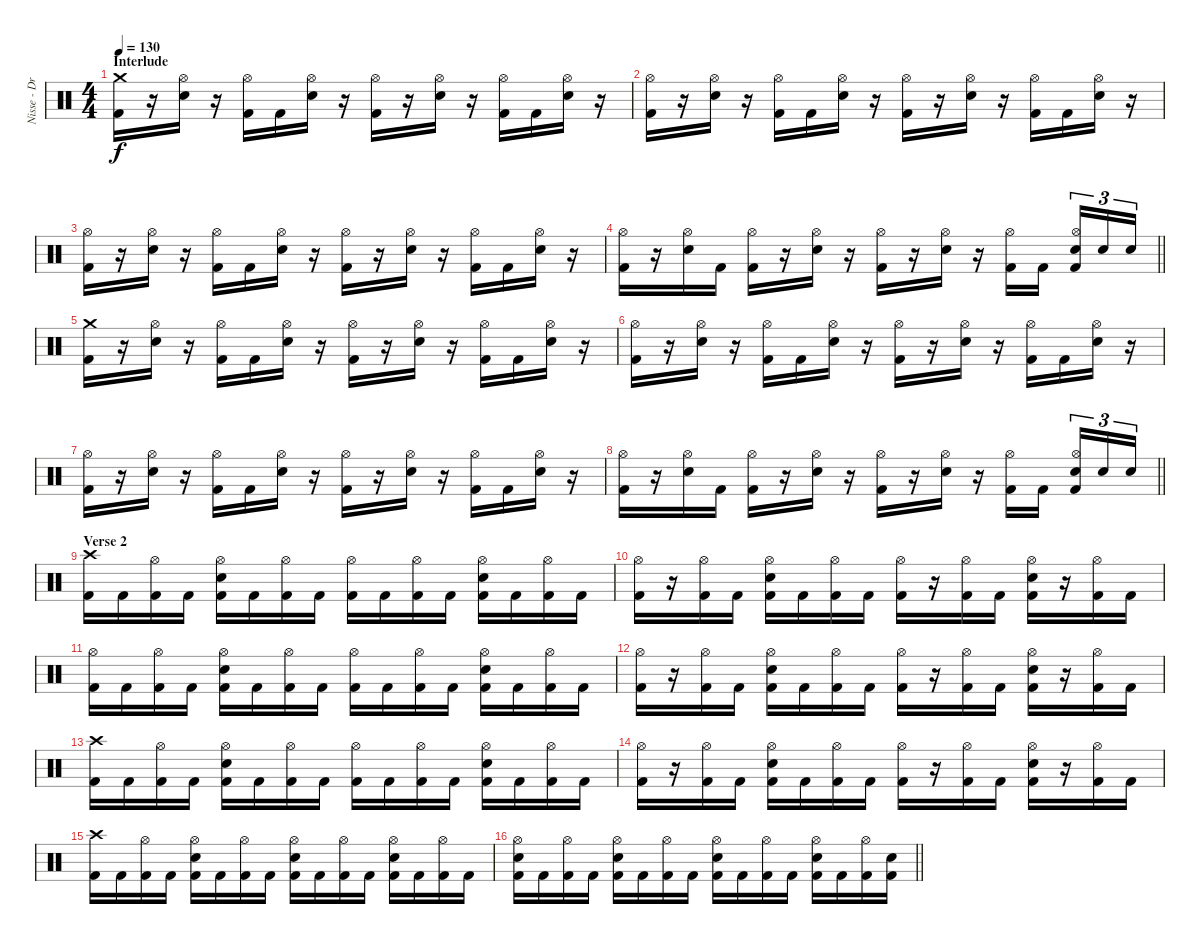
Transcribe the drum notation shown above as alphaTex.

\track ("Nisse - Drums" "Nisse - Dr") {instrument percussion}
\staff {score}
\articulation defaults
\ts (4 4)
\section ("" "Interlude")
\tempo 130
\clef neutral
\ks c
("Crash medium (hit)" "Kick (hit) 2").16{dy f} r.16 ("Hi-Hat (open)" "Electric Snare (hit)").16 r.16 ("Hi-Hat (open)" "Kick (hit) 2").16 "Kick (hit) 2".16 ("Hi-Hat (open)" "Electric Snare (hit)").16 r.16 ("Hi-Hat (open)" "Kick (hit) 2").16 r.16 ("Hi-Hat (open)" "Electric Snare (hit)").16 r.16 ("Hi-Hat (open)" "Kick (hit) 2").16 "Kick (hit) 2".16 ("Hi-Hat (open)" "Electric Snare (hit)").16 r.16 |
("Hi-Hat (open)" "Kick (hit) 2").16 r.16 ("Hi-Hat (open)" "Electric Snare (hit)").16 r.16 ("Hi-Hat (open)" "Kick (hit) 2").16 "Kick (hit) 2".16 ("Hi-Hat (open)" "Electric Snare (hit)").16 r.16 ("Hi-Hat (open)" "Kick (hit) 2").16 r.16 ("Hi-Hat (open)" "Electric Snare (hit)").16 r.16 ("Hi-Hat (open)" "Kick (hit) 2").16 "Kick (hit) 2".16 ("Hi-Hat (open)" "Electric Snare (hit)").16 r.16 |
("Hi-Hat (open)" "Kick (hit) 2").16 r.16 ("Hi-Hat (open)" "Electric Snare (hit)").16 r.16 ("Hi-Hat (open)" "Kick (hit) 2").16 "Kick (hit) 2".16 ("Hi-Hat (open)" "Electric Snare (hit)").16 r.16 ("Hi-Hat (open)" "Kick (hit) 2").16 r.16 ("Hi-Hat (open)" "Electric Snare (hit)").16 r.16 ("Hi-Hat (open)" "Kick (hit) 2").16 "Kick (hit) 2".16 ("Hi-Hat (open)" "Electric Snare (hit)").16 r.16 |
\barLineRight lightlight
("Hi-Hat (open)" "Kick (hit) 2").16 r.16 ("Hi-Hat (open)" "Electric Snare (hit)").16 "Kick (hit) 2".16 ("Hi-Hat (open)" "Kick (hit) 2").16 r.16 ("Hi-Hat (open)" "Electric Snare (hit)").16 r.16 ("Hi-Hat (open)" "Kick (hit) 2").16 r.16 ("Hi-Hat (open)" "Electric Snare (hit)").16 r.16 ("Hi-Hat (open)" "Kick (hit) 2").16 "Kick (hit) 2".16{beam splitsecondary} ("Hi-Hat (open)" "Electric Snare (hit)" "Kick (hit) 2").16{tu (3 2)} "Electric Snare (hit)".16{tu (3 2)} "Electric Snare (hit)".16{tu (3 2)} |
("Crash medium (hit)" "Kick (hit) 2").16 r.16 ("Hi-Hat (open)" "Electric Snare (hit)").16 r.16 ("Hi-Hat (open)" "Kick (hit) 2").16 "Kick (hit) 2".16 ("Hi-Hat (open)" "Electric Snare (hit)").16 r.16 ("Hi-Hat (open)" "Kick (hit) 2").16 r.16 ("Hi-Hat (open)" "Electric Snare (hit)").16 r.16 ("Hi-Hat (open)" "Kick (hit) 2").16 "Kick (hit) 2".16 ("Hi-Hat (open)" "Electric Snare (hit)").16 r.16 |
("Hi-Hat (open)" "Kick (hit) 2").16 r.16 ("Hi-Hat (open)" "Electric Snare (hit)").16 r.16 ("Hi-Hat (open)" "Kick (hit) 2").16 "Kick (hit) 2".16 ("Hi-Hat (open)" "Electric Snare (hit)").16 r.16 ("Hi-Hat (open)" "Kick (hit) 2").16 r.16 ("Hi-Hat (open)" "Electric Snare (hit)").16 r.16 ("Hi-Hat (open)" "Kick (hit) 2").16 "Kick (hit) 2".16 ("Hi-Hat (open)" "Electric Snare (hit)").16 r.16 |
("Hi-Hat (open)" "Kick (hit) 2").16 r.16 ("Hi-Hat (open)" "Electric Snare (hit)").16 r.16 ("Hi-Hat (open)" "Kick (hit) 2").16 "Kick (hit) 2".16 ("Hi-Hat (open)" "Electric Snare (hit)").16 r.16 ("Hi-Hat (open)" "Kick (hit) 2").16 r.16 ("Hi-Hat (open)" "Electric Snare (hit)").16 r.16 ("Hi-Hat (open)" "Kick (hit) 2").16 "Kick (hit) 2".16 ("Hi-Hat (open)" "Electric Snare (hit)").16 r.16 |
\barLineRight lightlight
("Hi-Hat (open)" "Kick (hit) 2").16 r.16 ("Hi-Hat (open)" "Electric Snare (hit)").16 "Kick (hit) 2".16 ("Hi-Hat (open)" "Kick (hit) 2").16 r.16 ("Hi-Hat (open)" "Electric Snare (hit)").16 r.16 ("Hi-Hat (open)" "Kick (hit) 2").16 r.16 ("Hi-Hat (open)" "Electric Snare (hit)").16 r.16 ("Hi-Hat (open)" "Kick (hit) 2").16 "Kick (hit) 2".16{beam splitsecondary} ("Hi-Hat (open)" "Electric Snare (hit)" "Kick (hit) 2").16{tu (3 2)} "Electric Snare (hit)".16{tu (3 2)} "Electric Snare (hit)".16{tu (3 2)} |
\section ("" "Verse 2")
("Crash high (hit)" "Kick (hit) 2").16 "Kick (hit) 2".16 ("Hi-Hat (open)" "Kick (hit) 2").16 "Kick (hit) 2".16 ("Hi-Hat (open)" "Electric Snare (hit)" "Kick (hit) 2").16 "Kick (hit) 2".16 ("Hi-Hat (open)" "Kick (hit) 2").16 "Kick (hit) 2".16 ("Hi-Hat (open)" "Kick (hit) 2").16 "Kick (hit) 2".16 ("Hi-Hat (open)" "Kick (hit) 2").16 "Kick (hit) 2".16 ("Hi-Hat (open)" "Electric Snare (hit)" "Kick (hit) 2").16 "Kick (hit) 2".16 ("Hi-Hat (open)" "Kick (hit) 2").16 "Kick (hit) 2".16 |
("Hi-Hat (open)" "Kick (hit) 2").16 r.16 ("Hi-Hat (open)" "Kick (hit) 2").16 "Kick (hit) 2".16 ("Hi-Hat (open)" "Electric Snare (hit)" "Kick (hit) 2").16 "Kick (hit) 2".16 ("Hi-Hat (open)" "Kick (hit) 2").16 "Kick (hit) 2".16 ("Hi-Hat (open)" "Kick (hit) 2").16 r.16 ("Hi-Hat (open)" "Kick (hit) 2").16 "Kick (hit) 2".16 ("Hi-Hat (open)" "Electric Snare (hit)" "Kick (hit) 2").16 r.16 ("Hi-Hat (open)" "Kick (hit) 2").16 "Kick (hit) 2".16 |
("Hi-Hat (open)" "Kick (hit) 2").16 "Kick (hit) 2".16 ("Hi-Hat (open)" "Kick (hit) 2").16 "Kick (hit) 2".16 ("Hi-Hat (open)" "Electric Snare (hit)" "Kick (hit) 2").16 "Kick (hit) 2".16 ("Hi-Hat (open)" "Kick (hit) 2").16 "Kick (hit) 2".16 ("Hi-Hat (open)" "Kick (hit) 2").16 "Kick (hit) 2".16 ("Hi-Hat (open)" "Kick (hit) 2").16 "Kick (hit) 2".16 ("Hi-Hat (open)" "Electric Snare (hit)" "Kick (hit) 2").16 "Kick (hit) 2".16 ("Hi-Hat (open)" "Kick (hit) 2").16 "Kick (hit) 2".16 |
("Hi-Hat (open)" "Kick (hit) 2").16 r.16 ("Hi-Hat (open)" "Kick (hit) 2").16 "Kick (hit) 2".16 ("Hi-Hat (open)" "Electric Snare (hit)" "Kick (hit) 2").16 "Kick (hit) 2".16 ("Hi-Hat (open)" "Kick (hit) 2").16 "Kick (hit) 2".16 ("Hi-Hat (open)" "Kick (hit) 2").16 r.16 ("Hi-Hat (open)" "Kick (hit) 2").16 "Kick (hit) 2".16 ("Hi-Hat (open)" "Electric Snare (hit)" "Kick (hit) 2").16 r.16 ("Hi-Hat (open)" "Kick (hit) 2").16 "Kick (hit) 2".16 |
("Crash high (hit)" "Kick (hit) 2").16 "Kick (hit) 2".16 ("Hi-Hat (open)" "Kick (hit) 2").16 "Kick (hit) 2".16 ("Hi-Hat (open)" "Electric Snare (hit)" "Kick (hit) 2").16 "Kick (hit) 2".16 ("Hi-Hat (open)" "Kick (hit) 2").16 "Kick (hit) 2".16 ("Hi-Hat (open)" "Kick (hit) 2").16 "Kick (hit) 2".16 ("Hi-Hat (open)" "Kick (hit) 2").16 "Kick (hit) 2".16 ("Hi-Hat (open)" "Electric Snare (hit)" "Kick (hit) 2").16 "Kick (hit) 2".16 ("Hi-Hat (open)" "Kick (hit) 2").16 "Kick (hit) 2".16 |
("Hi-Hat (open)" "Kick (hit) 2").16 r.16 ("Hi-Hat (open)" "Kick (hit) 2").16 "Kick (hit) 2".16 ("Hi-Hat (open)" "Electric Snare (hit)" "Kick (hit) 2").16 "Kick (hit) 2".16 ("Hi-Hat (open)" "Kick (hit) 2").16 "Kick (hit) 2".16 ("Hi-Hat (open)" "Kick (hit) 2").16 r.16 ("Hi-Hat (open)" "Kick (hit) 2").16 "Kick (hit) 2".16 ("Hi-Hat (open)" "Electric Snare (hit)" "Kick (hit) 2").16 r.16 ("Hi-Hat (open)" "Kick (hit) 2").16 "Kick (hit) 2".16 |
("Crash high (hit)" "Kick (hit) 2").16 "Kick (hit) 2".16 ("Hi-Hat (open)" "Kick (hit) 2").16 "Kick (hit) 2".16 ("Hi-Hat (open)" "Electric Snare (hit)" "Kick (hit) 2").16 "Kick (hit) 2".16 ("Hi-Hat (open)" "Kick (hit) 2").16 "Kick (hit) 2".16 ("Hi-Hat (open)" "Electric Snare (hit)" "Kick (hit) 2").16 "Kick (hit) 2".16 ("Hi-Hat (open)" "Kick (hit) 2").16 "Kick (hit) 2".16 ("Hi-Hat (open)" "Electric Snare (hit)" "Kick (hit) 2").16 "Kick (hit) 2".16 ("Hi-Hat (open)" "Kick (hit) 2").16 "Kick (hit) 2".16 |
\barLineRight lightlight
("Hi-Hat (open)" "Electric Snare (hit)" "Kick (hit) 2").16 "Kick (hit) 2".16 ("Hi-Hat (open)" "Kick (hit) 2").16 "Kick (hit) 2".16 ("Hi-Hat (open)" "Electric Snare (hit)" "Kick (hit) 2").16 "Kick (hit) 2".16 ("Hi-Hat (open)" "Kick (hit) 2").16 "Kick (hit) 2".16 ("Hi-Hat (open)" "Electric Snare (hit)" "Kick (hit) 2").16 "Kick (hit) 2".16 ("Hi-Hat (open)" "Kick (hit) 2").16 "Kick (hit) 2".16 ("Hi-Hat (open)" "Electric Snare (hit)" "Kick (hit) 2").16 "Kick (hit) 2".16 ("Hi-Hat (open)" "Kick (hit) 2").16 ("Electric Snare (hit)" "Kick (hit) 2").16
